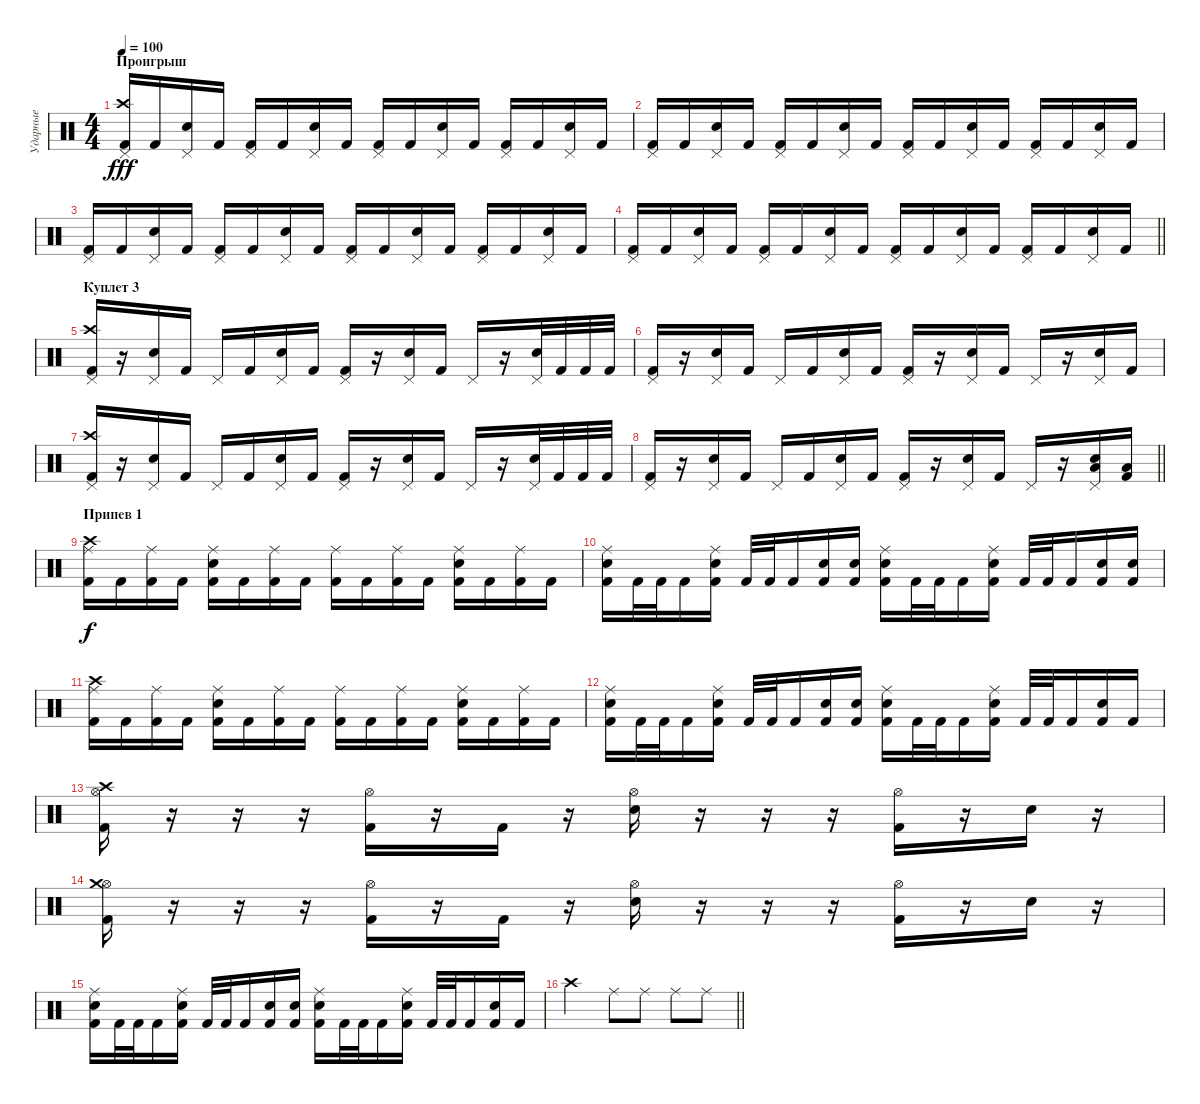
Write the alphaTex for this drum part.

\track ("Ударные" "Ударные") {instrument percussion}
\staff {score}
\articulation defaults
\ts (4 4)
\section ("" "Проигрыш")
\tempo 100
\clef neutral
\ks c
("Kick (hit) 2" "Crash high (hit)" "Pedal Hi-Hat (hit)").16{dy fff} "Kick (hit) 2".16 ("Snare (hit) 2" "Pedal Hi-Hat (hit)").16 "Kick (hit) 2".16 ("Kick (hit) 2" "Pedal Hi-Hat (hit)").16 "Kick (hit) 2".16 ("Snare (hit) 2" "Pedal Hi-Hat (hit)").16 "Kick (hit) 2".16 ("Kick (hit) 2" "Pedal Hi-Hat (hit)").16 "Kick (hit) 2".16 ("Snare (hit) 2" "Pedal Hi-Hat (hit)").16 "Kick (hit) 2".16 ("Kick (hit) 2" "Pedal Hi-Hat (hit)").16 "Kick (hit) 2".16 ("Snare (hit) 2" "Pedal Hi-Hat (hit)").16 "Kick (hit) 2".16 |
("Kick (hit) 2" "Pedal Hi-Hat (hit)").16 "Kick (hit) 2".16 ("Snare (hit) 2" "Pedal Hi-Hat (hit)").16 "Kick (hit) 2".16 ("Kick (hit) 2" "Pedal Hi-Hat (hit)").16 "Kick (hit) 2".16 ("Snare (hit) 2" "Pedal Hi-Hat (hit)").16 "Kick (hit) 2".16 ("Kick (hit) 2" "Pedal Hi-Hat (hit)").16 "Kick (hit) 2".16 ("Snare (hit) 2" "Pedal Hi-Hat (hit)").16 "Kick (hit) 2".16 ("Kick (hit) 2" "Pedal Hi-Hat (hit)").16 "Kick (hit) 2".16 ("Snare (hit) 2" "Pedal Hi-Hat (hit)").16 "Kick (hit) 2".16 |
("Kick (hit) 2" "Pedal Hi-Hat (hit)").16 "Kick (hit) 2".16 ("Snare (hit) 2" "Pedal Hi-Hat (hit)").16 "Kick (hit) 2".16 ("Kick (hit) 2" "Pedal Hi-Hat (hit)").16 "Kick (hit) 2".16 ("Snare (hit) 2" "Pedal Hi-Hat (hit)").16 "Kick (hit) 2".16 ("Kick (hit) 2" "Pedal Hi-Hat (hit)").16 "Kick (hit) 2".16 ("Snare (hit) 2" "Pedal Hi-Hat (hit)").16 "Kick (hit) 2".16 ("Kick (hit) 2" "Pedal Hi-Hat (hit)").16 "Kick (hit) 2".16 ("Snare (hit) 2" "Pedal Hi-Hat (hit)").16 "Kick (hit) 2".16 |
\barLineRight lightlight
("Kick (hit) 2" "Pedal Hi-Hat (hit)").16 "Kick (hit) 2".16 ("Snare (hit) 2" "Pedal Hi-Hat (hit)").16 "Kick (hit) 2".16 ("Kick (hit) 2" "Pedal Hi-Hat (hit)").16 "Kick (hit) 2".16 ("Snare (hit) 2" "Pedal Hi-Hat (hit)").16 "Kick (hit) 2".16 ("Kick (hit) 2" "Pedal Hi-Hat (hit)").16 "Kick (hit) 2".16 ("Snare (hit) 2" "Pedal Hi-Hat (hit)").16 "Kick (hit) 2".16 ("Kick (hit) 2" "Pedal Hi-Hat (hit)").16 "Kick (hit) 2".16 ("Snare (hit) 2" "Pedal Hi-Hat (hit)").16 "Kick (hit) 2".16 |
\section ("" "Куплет 3")
("Pedal Hi-Hat (hit)" "Crash high (hit)" "Kick (hit) 2").16 r.16 ("Pedal Hi-Hat (hit)" "Snare (hit) 2").16 "Kick (hit) 2".16 "Pedal Hi-Hat (hit)".16 "Kick (hit) 2".16 ("Pedal Hi-Hat (hit)" "Snare (hit) 2").16 "Kick (hit) 2".16 ("Pedal Hi-Hat (hit)" "Kick (hit) 2").16 r.16 ("Pedal Hi-Hat (hit)" "Snare (hit) 2").16 "Kick (hit) 2".16 "Pedal Hi-Hat (hit)".16 r.16 ("Pedal Hi-Hat (hit)" "Snare (hit) 2").32 "Kick (hit) 2".32 "Kick (hit) 2".32 "Kick (hit) 2".32 |
("Pedal Hi-Hat (hit)" "Kick (hit) 2").16 r.16 ("Pedal Hi-Hat (hit)" "Snare (hit) 2").16 "Kick (hit) 2".16 "Pedal Hi-Hat (hit)".16 "Kick (hit) 2".16 ("Pedal Hi-Hat (hit)" "Snare (hit) 2").16 "Kick (hit) 2".16 ("Pedal Hi-Hat (hit)" "Kick (hit) 2").16 r.16 ("Pedal Hi-Hat (hit)" "Snare (hit) 2").16 "Kick (hit) 2".16 "Pedal Hi-Hat (hit)".16 r.16 ("Pedal Hi-Hat (hit)" "Snare (hit) 2").16 "Kick (hit) 2".16 |
("Pedal Hi-Hat (hit)" "Crash high (hit)" "Kick (hit) 2").16 r.16 ("Pedal Hi-Hat (hit)" "Snare (hit) 2").16 "Kick (hit) 2".16 "Pedal Hi-Hat (hit)".16 "Kick (hit) 2".16 ("Pedal Hi-Hat (hit)" "Snare (hit) 2").16 "Kick (hit) 2".16 ("Pedal Hi-Hat (hit)" "Kick (hit) 2").16 r.16 ("Pedal Hi-Hat (hit)" "Snare (hit) 2").16 "Kick (hit) 2".16 "Pedal Hi-Hat (hit)".16 r.16 ("Pedal Hi-Hat (hit)" "Snare (hit) 2").32 "Kick (hit) 2".32 "Kick (hit) 2".32 "Kick (hit) 2".32 |
\barLineRight lightlight
("Pedal Hi-Hat (hit)" "Kick (hit) 2").16 r.16 ("Pedal Hi-Hat (hit)" "Snare (hit) 2").16 "Kick (hit) 2".16 "Pedal Hi-Hat (hit)".16 "Kick (hit) 2".16 ("Pedal Hi-Hat (hit)" "Snare (hit) 2").16 "Kick (hit) 2".16 ("Pedal Hi-Hat (hit)" "Kick (hit) 2").16 r.16 ("Pedal Hi-Hat (hit)" "Snare (hit) 2").16 "Kick (hit) 2".16 "Pedal Hi-Hat (hit)".16 r.16 ("Pedal Hi-Hat (hit)" "Low Floor Tom (hit)" "Snare (hit) 2").16 ("Low Floor Tom (hit)" "Kick (hit) 2").16 |
\section ("" "Припев 1")
("Crash high (hit)" "Kick (hit) 2" "Ride (middle)").16{dy f} "Kick (hit) 2".16 ("Kick (hit) 2" "Ride (middle)").16 "Kick (hit) 2".16 ("Snare (hit) 2" "Kick (hit) 2" "Ride (middle)").16 "Kick (hit) 2".16 ("Kick (hit) 2" "Ride (middle)").16 "Kick (hit) 2".16 ("Kick (hit) 2" "Ride (middle)").16 "Kick (hit) 2".16 ("Kick (hit) 2" "Ride (middle)").16 "Kick (hit) 2".16 ("Snare (hit) 2" "Kick (hit) 2" "Ride (middle)").16 "Kick (hit) 2".16 ("Kick (hit) 2" "Ride (middle)").16 "Kick (hit) 2".16 |
("Kick (hit) 2" "Snare (hit) 2" "Ride (middle)").16 "Kick (hit) 2".32 "Kick (hit) 2".32 "Kick (hit) 2".16 ("Kick (hit) 2" "Snare (hit) 2" "Ride (middle)").16 "Kick (hit) 2".32 "Kick (hit) 2".32 "Kick (hit) 2".16 ("Kick (hit) 2" "Snare (hit) 2").16 ("Kick (hit) 2" "Snare (hit) 2").16 ("Kick (hit) 2" "Snare (hit) 2" "Ride (middle)").16 "Kick (hit) 2".32 "Kick (hit) 2".32 "Kick (hit) 2".16 ("Kick (hit) 2" "Snare (hit) 2" "Ride (middle)").16 "Kick (hit) 2".32 "Kick (hit) 2".32 "Kick (hit) 2".16 ("Kick (hit) 2" "Snare (hit) 2").16 ("Kick (hit) 2" "Snare (hit) 2").16 |
("Crash high (hit)" "Kick (hit) 2" "Ride (middle)").16 "Kick (hit) 2".16 ("Kick (hit) 2" "Ride (middle)").16 "Kick (hit) 2".16 ("Snare (hit) 2" "Kick (hit) 2" "Ride (middle)").16 "Kick (hit) 2".16 ("Kick (hit) 2" "Ride (middle)").16 "Kick (hit) 2".16 ("Kick (hit) 2" "Ride (middle)").16 "Kick (hit) 2".16 ("Kick (hit) 2" "Ride (middle)").16 "Kick (hit) 2".16 ("Snare (hit) 2" "Kick (hit) 2" "Ride (middle)").16 "Kick (hit) 2".16 ("Kick (hit) 2" "Ride (middle)").16 "Kick (hit) 2".16 |
("Kick (hit) 2" "Snare (hit) 2" "Ride (middle)").16 "Kick (hit) 2".32 "Kick (hit) 2".32 "Kick (hit) 2".16 ("Kick (hit) 2" "Snare (hit) 2" "Ride (middle)").16 "Kick (hit) 2".32 "Kick (hit) 2".32 "Kick (hit) 2".16 ("Kick (hit) 2" "Snare (hit) 2").16 ("Kick (hit) 2" "Snare (hit) 2").16 ("Kick (hit) 2" "Snare (hit) 2" "Ride (middle)").16 "Kick (hit) 2".32 "Kick (hit) 2".32 "Kick (hit) 2".16 ("Kick (hit) 2" "Snare (hit) 2" "Ride (middle)").16 "Kick (hit) 2".32 "Kick (hit) 2".32 "Kick (hit) 2".16 ("Kick (hit) 2" "Snare (hit) 2").16 "Kick (hit) 2".16 |
("Kick (hit) 2" "Hi-Hat (open)" "Crash high (hit)").16 r.16 r.16 r.16 ("Kick (hit) 2" "Hi-Hat (open)").16 r.16 "Kick (hit) 2".16 r.16 ("Snare (hit) 2" "Hi-Hat (open)").16 r.16 r.16 r.16 ("Kick (hit) 2" "Hi-Hat (open)").16 r.16 "Snare (hit) 2".16 r.16 |
("Kick (hit) 2" "Hi-Hat (open)" "Crash medium (hit)").16 r.16 r.16 r.16 ("Kick (hit) 2" "Hi-Hat (open)").16 r.16 "Kick (hit) 2".16 r.16 ("Snare (hit) 2" "Hi-Hat (open)").16 r.16 r.16 r.16 ("Kick (hit) 2" "Hi-Hat (open)").16 r.16 "Snare (hit) 2".16 r.16 |
("Kick (hit) 2" "Snare (hit) 2" "Ride (middle)").16 "Kick (hit) 2".32 "Kick (hit) 2".32 "Kick (hit) 2".16 ("Kick (hit) 2" "Snare (hit) 2" "Ride (middle)").16 "Kick (hit) 2".32 "Kick (hit) 2".32 "Kick (hit) 2".16 ("Kick (hit) 2" "Snare (hit) 2").16 ("Kick (hit) 2" "Snare (hit) 2").16 ("Kick (hit) 2" "Snare (hit) 2" "Ride (middle)").16 "Kick (hit) 2".32 "Kick (hit) 2".32 "Kick (hit) 2".16 ("Kick (hit) 2" "Snare (hit) 2" "Ride (middle)").16 "Kick (hit) 2".32 "Kick (hit) 2".32 "Kick (hit) 2".16 ("Kick (hit) 2" "Snare (hit) 2").16 "Kick (hit) 2".16 |
\barLineRight lightlight "Crash high (hit)".2 "Ride (middle)".8 "Ride (middle)".8 "Ride (middle)".8 "Ride (middle)".8
